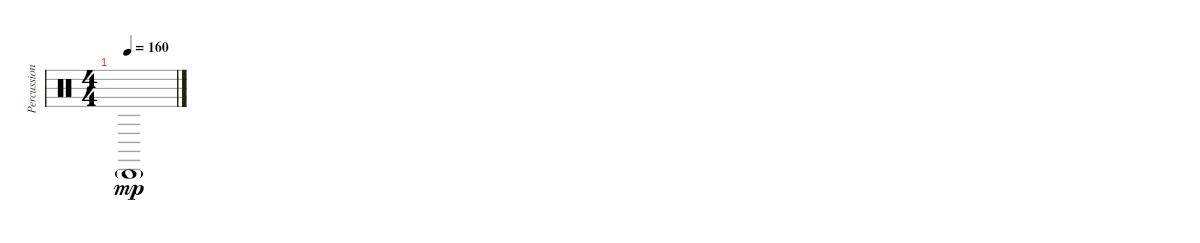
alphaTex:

\track ("Percussion" "Percussion") {instrument percussion}
\staff {score}
\articulation defaults
\ts (4 4)
\tempo 160
\clef neutral
\ks c "Cabasa (hit)"{g}.1{dy mp}
